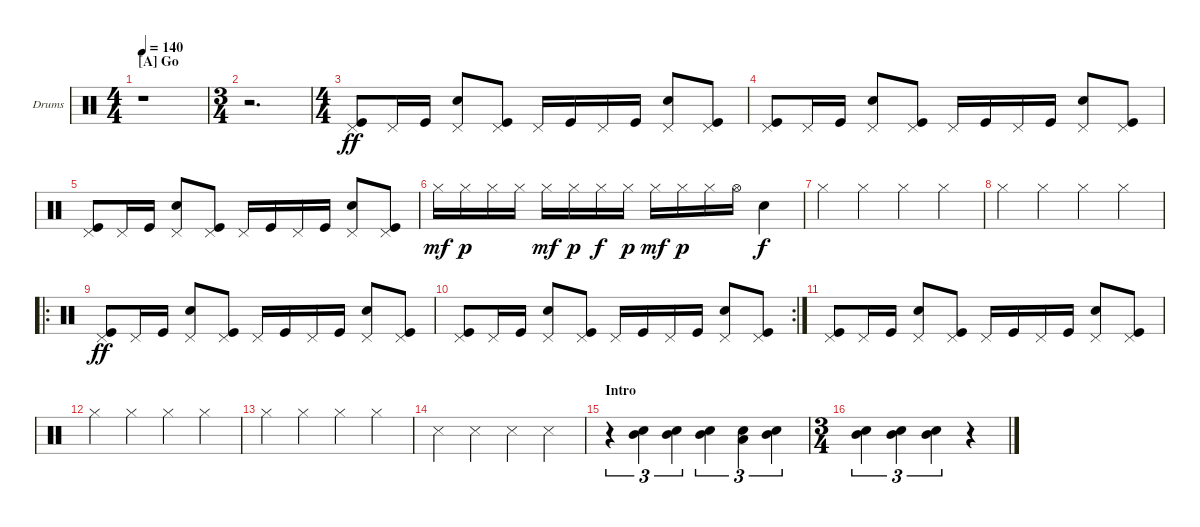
\defaultSystemsLayout 4
\bracketExtendMode nobrackets
\firstSystemTrackNameOrientation horizontal
\otherSystemsTrackNameOrientation horizontal
\track ("Dave Abbruzzese" "Drums") {solo instrument percussion}
\staff {score}
\articulation defaults
\ts (4 4)
\section ("A" "Go")
\tempo 140
\clef neutral
\ks c
r.1{dy ff} |
\ts (3 4)
r.2{d} |
\ts (4 4)
("Kick (hit)" "Pedal Hi-Hat (hit)").8 "Pedal Hi-Hat (hit)".16 "Kick (hit)".16 ("Snare (hit) 2" "Pedal Hi-Hat (hit)").8 ("Kick (hit)" "Pedal Hi-Hat (hit)").8 "Pedal Hi-Hat (hit)".16 "Kick (hit)".16 "Pedal Hi-Hat (hit)".16 "Kick (hit)".16 ("Snare (hit) 2" "Pedal Hi-Hat (hit)").8 ("Kick (hit)" "Pedal Hi-Hat (hit)").8 |
("Kick (hit)" "Pedal Hi-Hat (hit)").8 "Pedal Hi-Hat (hit)".16 "Kick (hit)".16 ("Snare (hit) 2" "Pedal Hi-Hat (hit)").8 ("Kick (hit)" "Pedal Hi-Hat (hit)").8 "Pedal Hi-Hat (hit)".16 "Kick (hit)".16 "Pedal Hi-Hat (hit)".16 "Kick (hit)".16 ("Snare (hit) 2" "Pedal Hi-Hat (hit)").8 ("Kick (hit)" "Pedal Hi-Hat (hit)").8 |
("Kick (hit)" "Pedal Hi-Hat (hit)").8 "Pedal Hi-Hat (hit)".16 "Kick (hit)".16 ("Snare (hit) 2" "Pedal Hi-Hat (hit)").8 ("Kick (hit)" "Pedal Hi-Hat (hit)").8 "Pedal Hi-Hat (hit)".16 "Kick (hit)".16 "Pedal Hi-Hat (hit)".16 "Kick (hit)".16 ("Snare (hit) 2" "Pedal Hi-Hat (hit)").8 ("Kick (hit)" "Pedal Hi-Hat (hit)").8 |
"Hi-Hat (closed)".16{dy mf} "Hi-Hat (closed)".16{dy p} "Hi-Hat (closed)".16 "Hi-Hat (closed)".16 "Hi-Hat (closed)".16{dy mf} "Hi-Hat (closed)".16{dy p} "Hi-Hat (closed)".16{dy f} "Hi-Hat (closed)".16{dy p} "Hi-Hat (closed)".16{dy mf} "Hi-Hat (closed)".16{dy p} "Hi-Hat (closed)".16 "Hi-Hat (open)".16 "Snare (hit) 2".4{dy f} |
"Hi-Hat (closed)".4 "Hi-Hat (closed)".4 "Hi-Hat (closed)".4 "Hi-Hat (closed)".4 |
"Hi-Hat (closed)".4 "Hi-Hat (closed)".4 "Hi-Hat (closed)".4 "Hi-Hat (closed)".4 |
\ro
("Kick (hit)" "Pedal Hi-Hat (hit)").8{dy ff} "Pedal Hi-Hat (hit)".16 "Kick (hit)".16 ("Snare (hit) 2" "Pedal Hi-Hat (hit)").8 ("Kick (hit)" "Pedal Hi-Hat (hit)").8 "Pedal Hi-Hat (hit)".16 "Kick (hit)".16 "Pedal Hi-Hat (hit)".16 "Kick (hit)".16 ("Snare (hit) 2" "Pedal Hi-Hat (hit)").8 ("Kick (hit)" "Pedal Hi-Hat (hit)").8 |
\rc 2
("Kick (hit)" "Pedal Hi-Hat (hit)").8 "Pedal Hi-Hat (hit)".16 "Kick (hit)".16 ("Snare (hit) 2" "Pedal Hi-Hat (hit)").8 ("Kick (hit)" "Pedal Hi-Hat (hit)").8 "Pedal Hi-Hat (hit)".16 "Kick (hit)".16 "Pedal Hi-Hat (hit)".16 "Kick (hit)".16 ("Snare (hit) 2" "Pedal Hi-Hat (hit)").8 ("Kick (hit)" "Pedal Hi-Hat (hit)").8 |
("Kick (hit)" "Pedal Hi-Hat (hit)").8 "Pedal Hi-Hat (hit)".16 "Kick (hit)".16 ("Snare (hit) 2" "Pedal Hi-Hat (hit)").8 ("Kick (hit)" "Pedal Hi-Hat (hit)").8 "Pedal Hi-Hat (hit)".16 "Kick (hit)".16 "Pedal Hi-Hat (hit)".16 "Kick (hit)".16 ("Snare (hit) 2" "Pedal Hi-Hat (hit)").8 ("Kick (hit)" "Pedal Hi-Hat (hit)").8 |
"Hi-Hat (closed)".4 "Hi-Hat (closed)".4 "Hi-Hat (closed)".4 "Hi-Hat (closed)".4 |
"Hi-Hat (closed)".4 "Hi-Hat (closed)".4 "Hi-Hat (closed)".4 "Hi-Hat (closed)".4 |
"Snare (side stick) 3".4 "Snare (side stick) 3".4 "Snare (side stick) 3".4 "Snare (side stick) 3".4 |
\section ("" "Intro")
r.4{tu (3 2)} ("Mid Tom (hit)" "Snare (hit) 2").4{tu (3 2)} ("Mid Tom (hit)" "Snare (hit) 2").4{tu (3 2)} ("Mid Tom (hit)" "Snare (hit) 2").4{tu (3 2)} ("Low Tom (hit)" "Snare (hit) 2").4{tu (3 2)} ("Mid Tom (hit)" "Snare (hit) 2").4{tu (3 2)} |
\ts (3 4)
("Mid Tom (hit)" "Snare (hit) 2").4{tu (3 2)} ("Mid Tom (hit)" "Snare (hit) 2").4{tu (3 2)} ("Mid Tom (hit)" "Snare (hit) 2").4{tu (3 2)} r.4
